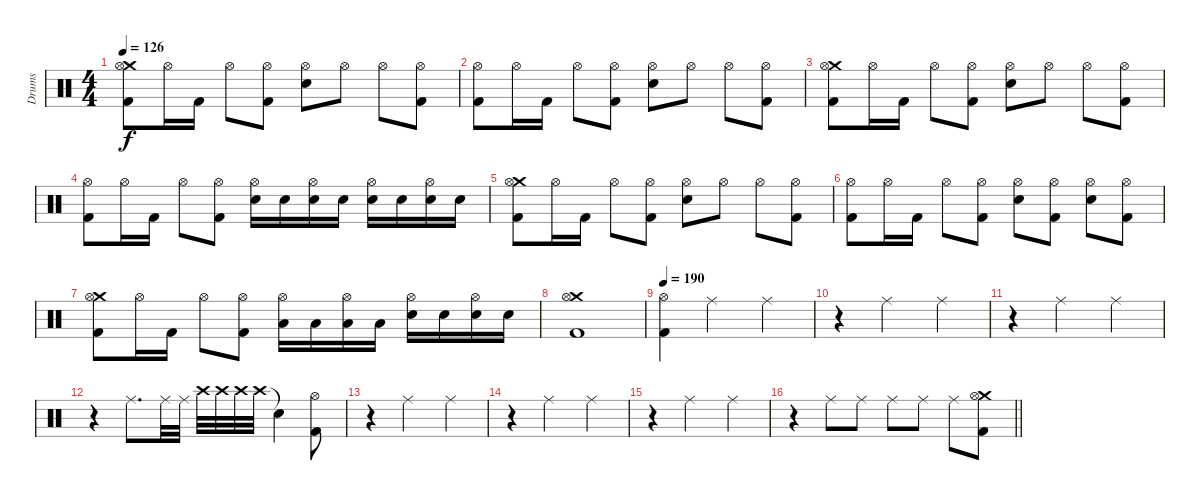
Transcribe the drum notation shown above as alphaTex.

\track ("Drums" "Drums") {instrument percussion}
\staff {score}
\articulation defaults
\ts (4 4)
\tempo 126
\clef neutral
\ks c
("Crash medium (hit)" "Hi-Hat (open)" "Kick (hit) 2").8{dy f} "Hi-Hat (open)".16 "Kick (hit) 2".16 "Hi-Hat (open)".8 ("Hi-Hat (open)" "Kick (hit) 2").8 ("Hi-Hat (open)" "Electric Snare (hit)").8 "Hi-Hat (open)".8 "Hi-Hat (open)".8 ("Hi-Hat (open)" "Kick (hit) 2").8 |
("Hi-Hat (open)" "Kick (hit) 2").8 "Hi-Hat (open)".16 "Kick (hit) 2".16 "Hi-Hat (open)".8 ("Hi-Hat (open)" "Kick (hit) 2").8 ("Hi-Hat (open)" "Electric Snare (hit)").8 "Hi-Hat (open)".8 "Hi-Hat (open)".8 ("Hi-Hat (open)" "Kick (hit) 2").8 |
("Crash medium (hit)" "Hi-Hat (open)" "Kick (hit) 2").8 "Hi-Hat (open)".16 "Kick (hit) 2".16 "Hi-Hat (open)".8 ("Hi-Hat (open)" "Kick (hit) 2").8 ("Hi-Hat (open)" "Electric Snare (hit)").8 "Hi-Hat (open)".8 "Hi-Hat (open)".8 ("Hi-Hat (open)" "Kick (hit) 2").8 |
("Hi-Hat (open)" "Kick (hit) 2").8 "Hi-Hat (open)".16 "Kick (hit) 2".16 "Hi-Hat (open)".8 ("Hi-Hat (open)" "Kick (hit) 2").8 ("Hi-Hat (open)" "Electric Snare (hit)").16 "Electric Snare (hit)".16 ("Hi-Hat (open)" "Electric Snare (hit)").16 "Electric Snare (hit)".16 ("Hi-Hat (open)" "Electric Snare (hit)").16 "Electric Snare (hit)".16 ("Hi-Hat (open)" "Electric Snare (hit)").16 "Electric Snare (hit)".16 |
("Crash medium (hit)" "Hi-Hat (open)" "Kick (hit) 2").8 "Hi-Hat (open)".16 "Kick (hit) 2".16 "Hi-Hat (open)".8 ("Hi-Hat (open)" "Kick (hit) 2").8 ("Hi-Hat (open)" "Electric Snare (hit)").8 "Hi-Hat (open)".8 "Hi-Hat (open)".8 ("Hi-Hat (open)" "Kick (hit) 2").8 |
("Hi-Hat (open)" "Kick (hit) 2").8 "Hi-Hat (open)".16 "Kick (hit) 2".16 "Hi-Hat (open)".8 ("Hi-Hat (open)" "Kick (hit) 2").8 ("Hi-Hat (open)" "Electric Snare (hit)").8 ("Hi-Hat (open)" "Kick (hit) 2").8 ("Hi-Hat (open)" "Electric Snare (hit)").8 ("Hi-Hat (open)" "Kick (hit) 2").8 |
("Crash medium (hit)" "Hi-Hat (open)" "Kick (hit) 2").8 "Hi-Hat (open)".16 "Kick (hit) 2".16 "Hi-Hat (open)".8 ("Hi-Hat (open)" "Kick (hit) 2").8 ("Hi-Hat (open)" "Low Floor Tom (hit)").16 "Low Floor Tom (hit)".16 ("Hi-Hat (open)" "Low Floor Tom (hit)").16 "Low Floor Tom (hit)".16 ("Hi-Hat (open)" "Electric Snare (hit)").16 "Electric Snare (hit)".16 ("Hi-Hat (open)" "Electric Snare (hit)").16 "Electric Snare (hit)".16 |
("Crash medium (hit)" "Hi-Hat (open)" "Kick (hit) 2").1 |
\tempo 190
("Hi-Hat (open)" "Kick (hit) 2").4 "Ride (middle)".2 "Ride (middle)".4 |
r.4 "Ride (middle)".2 "Ride (middle)".4 |
r.4 "Ride (middle)".2 "Ride (middle)".4 |
r.4 "Ride (middle)".8{d} "Ride (middle)".32 "Ride (middle)".32 "Crash high (hit)".32 "Crash high (hit)".32 "Crash high (hit)".32 "Crash high (hit)".32 "Snare (hit)"{t}.4 ("Hi-Hat (open)" "Kick (hit) 2").8 |
r.4 "Ride (middle)".2 "Ride (middle)".4 |
r.4 "Ride (middle)".2 "Ride (middle)".4 |
r.4 "Ride (middle)".2 "Ride (middle)".4 |
\barLineRight lightlight
r.4 "Ride (middle)".8 "Ride (middle)".8 "Ride (middle)".8 "Ride (middle)".8 "Ride (middle)".8 ("Crash medium (hit)" "Hi-Hat (open)" "Kick (hit) 2").8
